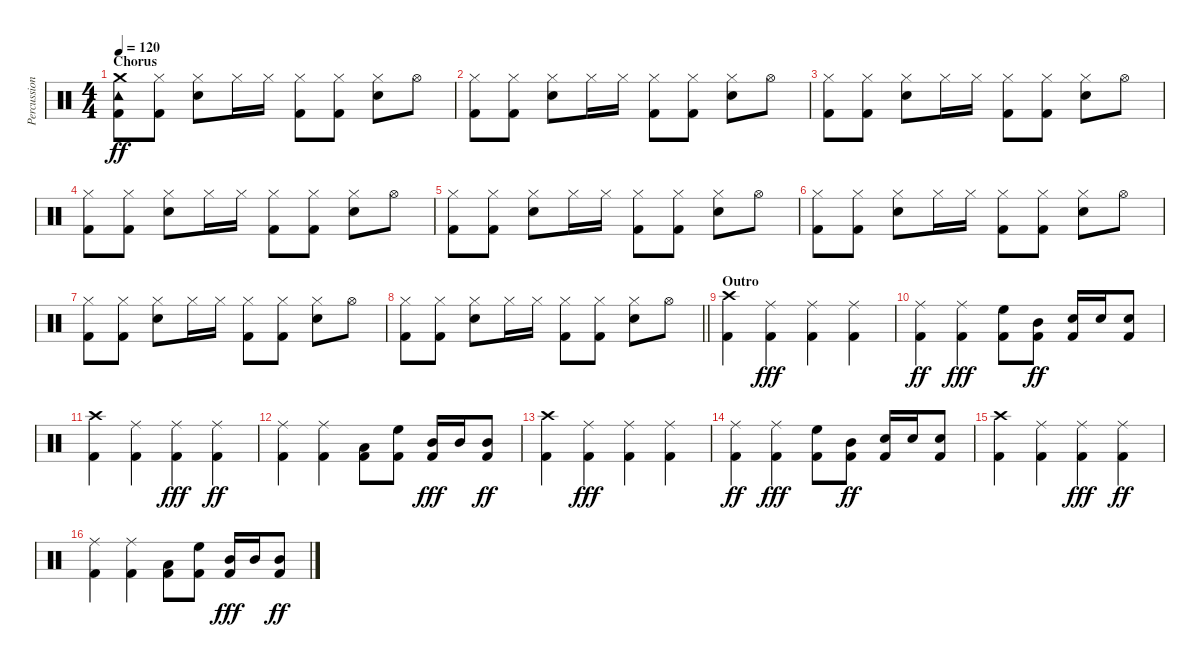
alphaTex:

\track ("Percussion" "Percussion") {instrument percussion}
\staff {score}
\articulation defaults
\ts (4 4)
\section ("" "Chorus")
\tempo 120
\clef neutral
\ks c
("Crash medium (hit)" "Tambourine (hit)" "Kick (hit) 2").8{dy ff} ("Kick (hit) 2" "Hi-Hat (closed)").8 ("Hi-Hat (closed)" "Snare (hit) 2").8 "Hi-Hat (closed)".16 "Hi-Hat (closed)".16 ("Hi-Hat (closed)" "Kick (hit) 2").8 ("Hi-Hat (closed)" "Kick (hit) 2").8 ("Hi-Hat (closed)" "Snare (hit) 2").8 "Hi-Hat (open)".8 |
("Hi-Hat (closed)" "Kick (hit) 2").8 ("Kick (hit) 2" "Hi-Hat (closed)").8 ("Hi-Hat (closed)" "Snare (hit) 2").8 "Hi-Hat (closed)".16 "Hi-Hat (closed)".16 ("Kick (hit) 2" "Hi-Hat (closed)").8 ("Hi-Hat (closed)" "Kick (hit) 2").8 ("Hi-Hat (closed)" "Snare (hit) 2").8 "Hi-Hat (open)".8 |
("Hi-Hat (closed)" "Kick (hit) 2").8 ("Kick (hit) 2" "Hi-Hat (closed)").8 ("Hi-Hat (closed)" "Snare (hit) 2").8 "Hi-Hat (closed)".16 "Hi-Hat (closed)".16 ("Hi-Hat (closed)" "Kick (hit) 2").8 ("Hi-Hat (closed)" "Kick (hit) 2").8 ("Hi-Hat (closed)" "Snare (hit) 2").8 "Hi-Hat (open)".8 |
("Hi-Hat (closed)" "Kick (hit) 2").8 ("Hi-Hat (closed)" "Kick (hit) 2").8 ("Hi-Hat (closed)" "Snare (hit) 2").8 "Hi-Hat (closed)".16 "Hi-Hat (closed)".16 ("Hi-Hat (closed)" "Kick (hit) 2").8 ("Kick (hit) 2" "Hi-Hat (closed)").8 ("Hi-Hat (closed)" "Snare (hit) 2").8 "Hi-Hat (open)".8 |
("Kick (hit) 2" "Hi-Hat (closed)").8 ("Kick (hit) 2" "Hi-Hat (closed)").8 ("Hi-Hat (closed)" "Snare (hit) 2").8 "Hi-Hat (closed)".16 "Hi-Hat (closed)".16 ("Hi-Hat (closed)" "Kick (hit) 2").8 ("Hi-Hat (closed)" "Kick (hit) 2").8 ("Snare (hit) 2" "Hi-Hat (closed)").8 "Hi-Hat (open)".8 |
("Hi-Hat (closed)" "Kick (hit) 2").8 ("Hi-Hat (closed)" "Kick (hit) 2").8 ("Hi-Hat (closed)" "Snare (hit) 2").8 "Hi-Hat (closed)".16 "Hi-Hat (closed)".16 ("Hi-Hat (closed)" "Kick (hit) 2").8 ("Kick (hit) 2" "Hi-Hat (closed)").8 ("Hi-Hat (closed)" "Snare (hit) 2").8 "Hi-Hat (open)".8 |
("Hi-Hat (closed)" "Kick (hit) 2").8 ("Hi-Hat (closed)" "Kick (hit) 2").8 ("Hi-Hat (closed)" "Snare (hit) 2").8 "Hi-Hat (closed)".16 "Hi-Hat (closed)".16 ("Hi-Hat (closed)" "Kick (hit) 2").8 ("Hi-Hat (closed)" "Kick (hit) 2").8 ("Snare (hit) 2" "Hi-Hat (closed)").8 "Hi-Hat (open)".8 |
\barLineRight lightlight
("Hi-Hat (closed)" "Kick (hit) 2").8 ("Hi-Hat (closed)" "Kick (hit) 2").8 ("Hi-Hat (closed)" "Snare (hit) 2").8 "Hi-Hat (closed)".16 "Hi-Hat (closed)".16 ("Kick (hit) 2" "Hi-Hat (closed)").8 ("Kick (hit) 2" "Hi-Hat (closed)").8 ("Hi-Hat (closed)" "Snare (hit) 2").8 "Hi-Hat (open)".8 |
\section ("" "Outro")
("Crash high (hit)" "Kick (hit) 2").4 ("Kick (hit) 2" "Ride (middle)").4{dy fff} ("Kick (hit) 2" "Ride (middle)").4 ("Kick (hit) 2" "Ride (middle)").4 |
("Ride (middle)" "Kick (hit) 2").4{dy ff} ("Kick (hit) 2" "Ride (middle)").4{dy fff} ("Kick (hit) 2" "High Floor Tom (hit)").8 ("Mid Tom (hit)" "Kick (hit) 2").8{dy ff} ("Snare (hit) 2" "Kick (hit) 2").16 "Snare (hit) 2".16 ("Kick (hit) 2" "Snare (hit) 2").8 |
("Crash high (hit)" "Kick (hit) 2").4 ("Ride (middle)" "Kick (hit) 2").4 ("Kick (hit) 2" "Ride (middle)").4{dy fff} ("Ride (middle)" "Kick (hit) 2").4{dy ff} |
("Ride (middle)" "Kick (hit) 2").4 ("Ride (middle)" "Kick (hit) 2").4 ("Low Tom (hit)" "Kick (hit) 2").8 ("High Floor Tom (hit)" "Kick (hit) 2").8 ("Kick (hit) 2" "Mid Tom (hit)").16{dy fff} "Mid Tom (hit)".16 ("Mid Tom (hit)" "Kick (hit) 2").8{dy ff} |
("Crash high (hit)" "Kick (hit) 2").4 ("Kick (hit) 2" "Ride (middle)").4{dy fff} ("Kick (hit) 2" "Ride (middle)").4 ("Kick (hit) 2" "Ride (middle)").4 |
("Ride (middle)" "Kick (hit) 2").4{dy ff} ("Kick (hit) 2" "Ride (middle)").4{dy fff} ("Kick (hit) 2" "High Floor Tom (hit)").8 ("Mid Tom (hit)" "Kick (hit) 2").8{dy ff} ("Snare (hit) 2" "Kick (hit) 2").16 "Snare (hit) 2".16 ("Kick (hit) 2" "Snare (hit) 2").8 |
("Crash high (hit)" "Kick (hit) 2").4 ("Ride (middle)" "Kick (hit) 2").4 ("Kick (hit) 2" "Ride (middle)").4{dy fff} ("Ride (middle)" "Kick (hit) 2").4{dy ff} |
("Ride (middle)" "Kick (hit) 2").4 ("Ride (middle)" "Kick (hit) 2").4 ("Low Tom (hit)" "Kick (hit) 2").8 ("High Floor Tom (hit)" "Kick (hit) 2").8 ("Kick (hit) 2" "Mid Tom (hit)").16{dy fff} "Mid Tom (hit)".16 ("Mid Tom (hit)" "Kick (hit) 2").8{dy ff}
